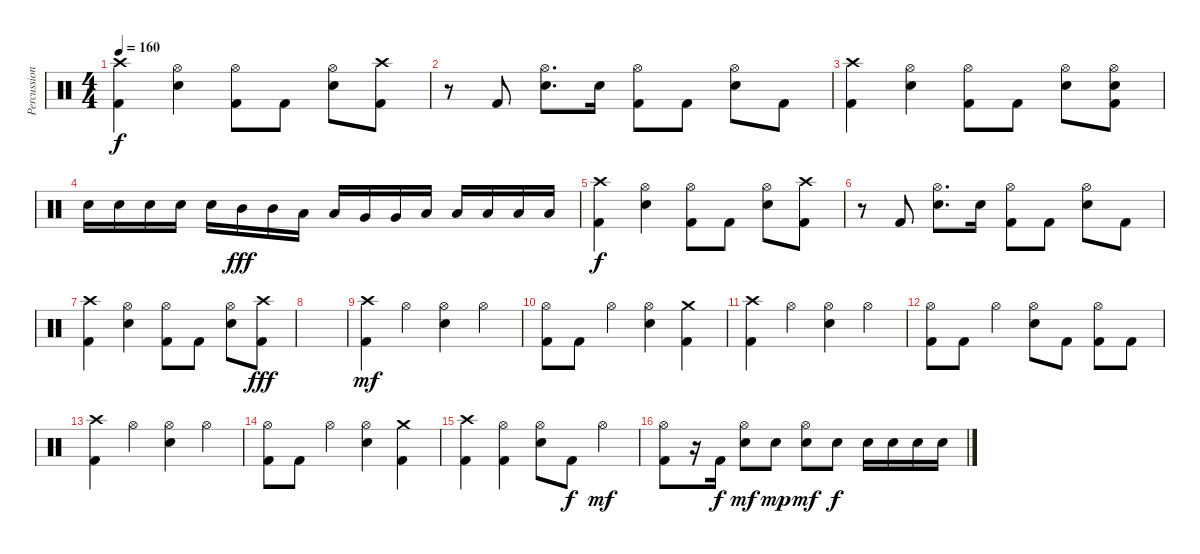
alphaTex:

\track ("Percussion" "Percussion") {instrument percussion}
\staff {score}
\articulation defaults
\ts (4 4)
\tempo 160
\clef neutral
\ks c
("Crash high (hit)" "Kick (hit) 2").4{dy f} ("Hi-Hat (open)" "Electric Snare (hit)").4 ("Hi-Hat (open)" "Kick (hit) 2").8 "Kick (hit) 2".8 ("Hi-Hat (open)" "Electric Snare (hit)").8 ("Crash high (hit)" "Kick (hit) 2").8 |
r.8 "Kick (hit) 2".8 ("Hi-Hat (open)" "Electric Snare (hit)").8{d} "Electric Snare (hit)".16 ("Hi-Hat (open)" "Kick (hit) 2").8 "Kick (hit) 2".8 ("Hi-Hat (open)" "Electric Snare (hit)").8 "Kick (hit) 2".8 |
("Crash high (hit)" "Kick (hit) 2").4 ("Hi-Hat (open)" "Electric Snare (hit)").4 ("Hi-Hat (open)" "Kick (hit) 2").8 "Kick (hit) 2".8 ("Hi-Hat (open)" "Electric Snare (hit)").8 ("Hi-Hat (open)" "Electric Snare (hit)" "Kick (hit) 2").8 |
"Electric Snare (hit)".16 "Electric Snare (hit)".16 "Electric Snare (hit)".16 "Electric Snare (hit)".16 "Electric Snare (hit)".16 "Mid Tom (hit)".16{dy fff} "Mid Tom (hit)".16 "Low Tom (hit)".16 "Low Tom (hit)".16 "Very Low Tom (hit)".16 "Very Low Tom (hit)".16 "Low Floor Tom (hit)".16 "Low Floor Tom (hit)".16 "Low Floor Tom (hit)".16 "Low Floor Tom (hit)".16 "Low Floor Tom (hit)".16 |
("Crash high (hit)" "Kick (hit) 2").4{dy f} ("Hi-Hat (open)" "Electric Snare (hit)").4 ("Hi-Hat (open)" "Kick (hit) 2").8 "Kick (hit) 2".8 ("Hi-Hat (open)" "Electric Snare (hit)").8 ("Crash high (hit)" "Kick (hit) 2").8 |
r.8 "Kick (hit) 2".8 ("Hi-Hat (open)" "Electric Snare (hit)").8{d} "Electric Snare (hit)".16 ("Hi-Hat (open)" "Kick (hit) 2").8 "Kick (hit) 2".8 ("Hi-Hat (open)" "Electric Snare (hit)").8 "Kick (hit) 2".8 |
("Crash high (hit)" "Kick (hit) 2").4 ("Hi-Hat (open)" "Electric Snare (hit)").4 ("Hi-Hat (open)" "Kick (hit) 2").8 "Kick (hit) 2".8 ("Hi-Hat (open)" "Electric Snare (hit)").8 ("Crash high (hit)" "Kick (hit) 2").8{dy fff} |
|
("Crash high (hit)" "Kick (hit) 2").4{dy mf} "Hi-Hat (open)".4 ("Hi-Hat (open)" "Electric Snare (hit)").4 "Hi-Hat (open)".4 |
("Hi-Hat (open)" "Kick (hit) 2").8 "Kick (hit) 2".8 "Hi-Hat (open)".4 ("Hi-Hat (open)" "Electric Snare (hit)").4 ("Crash medium (hit)" "Kick (hit) 2").4 |
("Crash high (hit)" "Kick (hit) 2").4 "Hi-Hat (open)".4 ("Hi-Hat (open)" "Electric Snare (hit)").4 "Hi-Hat (open)".4 |
("Hi-Hat (open)" "Kick (hit) 2").8 "Kick (hit) 2".8 "Hi-Hat (open)".4 ("Hi-Hat (open)" "Electric Snare (hit)").8 "Kick (hit) 2".8 ("Hi-Hat (open)" "Kick (hit) 2").8 "Kick (hit) 2".8 |
("Crash high (hit)" "Kick (hit) 2").4 "Hi-Hat (open)".4 ("Hi-Hat (open)" "Electric Snare (hit)").4 "Hi-Hat (open)".4 |
("Hi-Hat (open)" "Kick (hit) 2").8 "Kick (hit) 2".8 "Hi-Hat (open)".4 ("Hi-Hat (open)" "Electric Snare (hit)").4 ("Crash medium (hit)" "Kick (hit) 2").4 |
("Crash high (hit)" "Kick (hit) 2").4 ("Hi-Hat (open)" "Kick (hit) 2").4 ("Hi-Hat (open)" "Electric Snare (hit)").8 "Kick (hit) 2".8{dy f} "Hi-Hat (open)".4{dy mf} |
("Hi-Hat (open)" "Kick (hit) 2").8 r.16 "Kick (hit) 2".16{dy f} ("Hi-Hat (open)" "Electric Snare (hit)").8{dy mf} "Electric Snare (hit)".8{dy mp} ("Hi-Hat (open)" "Electric Snare (hit)").8{dy mf} "Electric Snare (hit)".8{dy f} "Electric Snare (hit)".16 "Electric Snare (hit)".16 "Electric Snare (hit)".16 "Electric Snare (hit)".16
